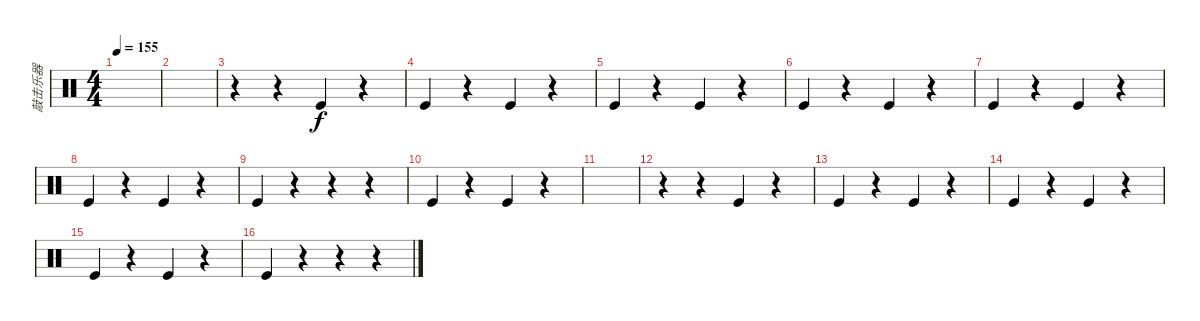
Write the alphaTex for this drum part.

\track ("敲击乐器" "敲击乐器") {instrument percussion}
\staff {score}
\articulation defaults
\ts (4 4)
\tempo 155
\clef neutral
\ks c
|
|
r.4 r.4 "Kick (hit)".4 r.4 |
"Kick (hit)".4 r.4 "Kick (hit)".4 r.4 |
"Kick (hit)".4 r.4 "Kick (hit)".4 r.4 |
"Kick (hit)".4 r.4 "Kick (hit)".4 r.4 |
"Kick (hit)".4 r.4 "Kick (hit)".4 r.4 |
"Kick (hit)".4 r.4 "Kick (hit)".4 r.4 |
"Kick (hit)".4 r.4 r.4 r.4 |
"Kick (hit)".4 r.4 "Kick (hit)".4 r.4 |
|
r.4 r.4 "Kick (hit)".4 r.4 |
"Kick (hit)".4 r.4 "Kick (hit)".4 r.4 |
"Kick (hit)".4 r.4 "Kick (hit)".4 r.4 |
"Kick (hit)".4 r.4 "Kick (hit)".4 r.4 |
"Kick (hit)".4 r.4 r.4 r.4
